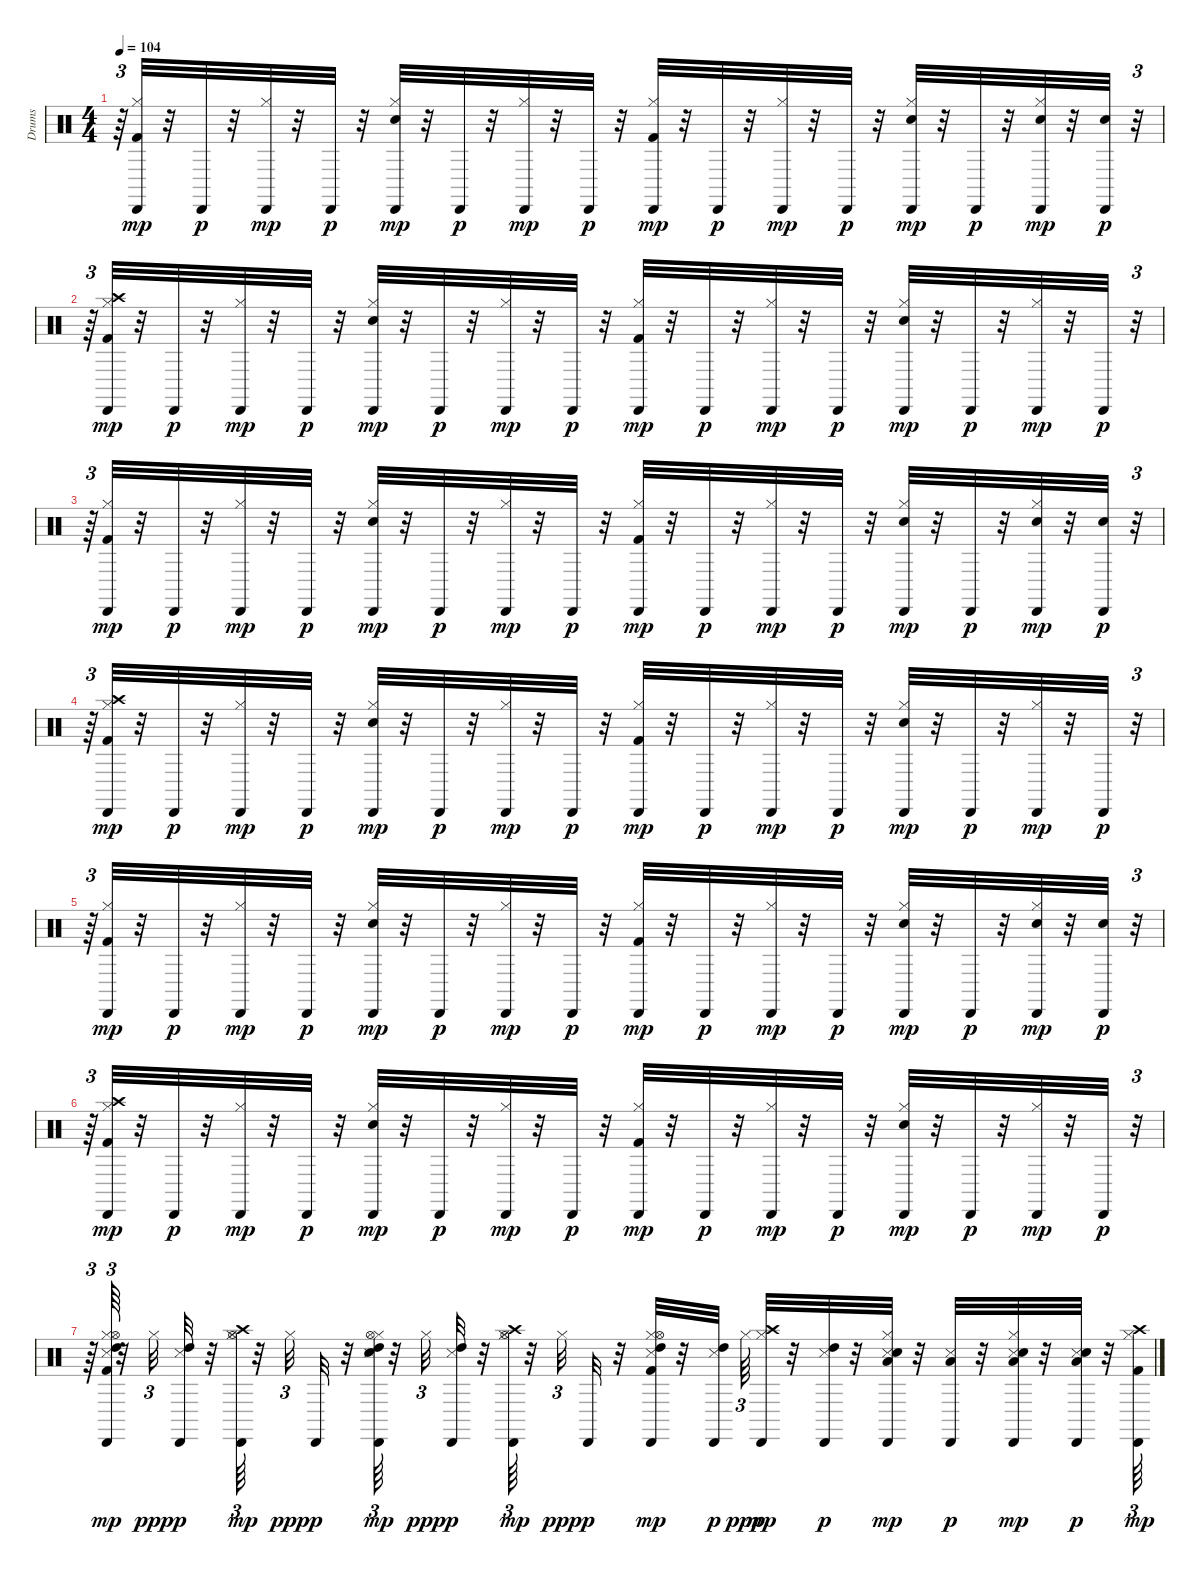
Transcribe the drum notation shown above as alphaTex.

\track ("Drums               " "Drums     ") {instrument percussion}
\staff {score}
\articulation defaults
\ts (4 4)
\tempo 104
\clef neutral
\ks c
r.64{tu (3 2) dy p} ("Kick (hit) 2" "Hi-Hat (closed)" "Cabasa (hit)").32{dy mp} r.32 "Cabasa (hit)".32{dy p} r.32 ("Hi-Hat (closed)" "Cabasa (hit)").32{dy mp} r.32 "Cabasa (hit)".32{dy p} r.32 ("Snare (hit) 2" "Hi-Hat (closed)" "Cabasa (hit)").32{dy mp} r.32 "Cabasa (hit)".32{dy p} r.32 ("Hi-Hat (closed)" "Cabasa (hit)").32{dy mp} r.32 "Cabasa (hit)".32{dy p} r.32 ("Kick (hit) 2" "Hi-Hat (closed)" "Cabasa (hit)").32{dy mp} r.32 "Cabasa (hit)".32{dy p} r.32 ("Hi-Hat (closed)" "Cabasa (hit)").32{dy mp} r.32 "Cabasa (hit)".32{dy p} r.32 ("Snare (hit) 2" "Hi-Hat (closed)" "Cabasa (hit)").32{dy mp} r.32 "Cabasa (hit)".32{dy p} r.32 ("Snare (hit) 2" "Hi-Hat (closed)" "Cabasa (hit)").32{dy mp} r.32 ("Snare (hit) 2" "Cabasa (hit)").32{dy p} r.32{tu (3 2)} |
r.64{tu (3 2)} ("Kick (hit) 2" "Hi-Hat (closed)" "Crash high (hit)" "Cabasa (hit)").32{dy mp} r.32 "Cabasa (hit)".32{dy p} r.32 ("Hi-Hat (closed)" "Cabasa (hit)").32{dy mp} r.32 "Cabasa (hit)".32{dy p} r.32 ("Snare (hit) 2" "Hi-Hat (closed)" "Cabasa (hit)").32{dy mp} r.32 "Cabasa (hit)".32{dy p} r.32 ("Hi-Hat (closed)" "Cabasa (hit)").32{dy mp} r.32 "Cabasa (hit)".32{dy p} r.32 ("Kick (hit) 2" "Hi-Hat (closed)" "Cabasa (hit)").32{dy mp} r.32 "Cabasa (hit)".32{dy p} r.32 ("Hi-Hat (closed)" "Cabasa (hit)").32{dy mp} r.32 "Cabasa (hit)".32{dy p} r.32 ("Snare (hit) 2" "Hi-Hat (closed)" "Cabasa (hit)").32{dy mp} r.32 "Cabasa (hit)".32{dy p} r.32 ("Hi-Hat (closed)" "Cabasa (hit)").32{dy mp} r.32 "Cabasa (hit)".32{dy p} r.32{tu (3 2)} |
r.64{tu (3 2)} ("Kick (hit) 2" "Hi-Hat (closed)" "Cabasa (hit)").32{dy mp} r.32 "Cabasa (hit)".32{dy p} r.32 ("Hi-Hat (closed)" "Cabasa (hit)").32{dy mp} r.32 "Cabasa (hit)".32{dy p} r.32 ("Snare (hit) 2" "Hi-Hat (closed)" "Cabasa (hit)").32{dy mp} r.32 "Cabasa (hit)".32{dy p} r.32 ("Hi-Hat (closed)" "Cabasa (hit)").32{dy mp} r.32 "Cabasa (hit)".32{dy p} r.32 ("Kick (hit) 2" "Hi-Hat (closed)" "Cabasa (hit)").32{dy mp} r.32 "Cabasa (hit)".32{dy p} r.32 ("Hi-Hat (closed)" "Cabasa (hit)").32{dy mp} r.32 "Cabasa (hit)".32{dy p} r.32 ("Snare (hit) 2" "Hi-Hat (closed)" "Cabasa (hit)").32{dy mp} r.32 "Cabasa (hit)".32{dy p} r.32 ("Snare (hit) 2" "Hi-Hat (closed)" "Cabasa (hit)").32{dy mp} r.32 ("Snare (hit) 2" "Cabasa (hit)").32{dy p} r.32{tu (3 2)} |
r.64{tu (3 2)} ("Kick (hit) 2" "Hi-Hat (closed)" "Crash high (hit)" "Cabasa (hit)").32{dy mp} r.32 "Cabasa (hit)".32{dy p} r.32 ("Hi-Hat (closed)" "Cabasa (hit)").32{dy mp} r.32 "Cabasa (hit)".32{dy p} r.32 ("Snare (hit) 2" "Hi-Hat (closed)" "Cabasa (hit)").32{dy mp} r.32 "Cabasa (hit)".32{dy p} r.32 ("Hi-Hat (closed)" "Cabasa (hit)").32{dy mp} r.32 "Cabasa (hit)".32{dy p} r.32 ("Kick (hit) 2" "Hi-Hat (closed)" "Cabasa (hit)").32{dy mp} r.32 "Cabasa (hit)".32{dy p} r.32 ("Hi-Hat (closed)" "Cabasa (hit)").32{dy mp} r.32 "Cabasa (hit)".32{dy p} r.32 ("Snare (hit) 2" "Hi-Hat (closed)" "Cabasa (hit)").32{dy mp} r.32 "Cabasa (hit)".32{dy p} r.32 ("Hi-Hat (closed)" "Cabasa (hit)").32{dy mp} r.32 "Cabasa (hit)".32{dy p} r.32{tu (3 2)} |
r.64{tu (3 2)} ("Kick (hit) 2" "Hi-Hat (closed)" "Cabasa (hit)").32{dy mp} r.32 "Cabasa (hit)".32{dy p} r.32 ("Hi-Hat (closed)" "Cabasa (hit)").32{dy mp} r.32 "Cabasa (hit)".32{dy p} r.32 ("Snare (hit) 2" "Hi-Hat (closed)" "Cabasa (hit)").32{dy mp} r.32 "Cabasa (hit)".32{dy p} r.32 ("Hi-Hat (closed)" "Cabasa (hit)").32{dy mp} r.32 "Cabasa (hit)".32{dy p} r.32 ("Kick (hit) 2" "Hi-Hat (closed)" "Cabasa (hit)").32{dy mp} r.32 "Cabasa (hit)".32{dy p} r.32 ("Hi-Hat (closed)" "Cabasa (hit)").32{dy mp} r.32 "Cabasa (hit)".32{dy p} r.32 ("Snare (hit) 2" "Hi-Hat (closed)" "Cabasa (hit)").32{dy mp} r.32 "Cabasa (hit)".32{dy p} r.32 ("Snare (hit) 2" "Hi-Hat (closed)" "Cabasa (hit)").32{dy mp} r.32 ("Snare (hit) 2" "Cabasa (hit)").32{dy p} r.32{tu (3 2)} |
r.64{tu (3 2)} ("Kick (hit) 2" "Hi-Hat (closed)" "Crash high (hit)" "Cabasa (hit)").32{dy mp} r.32 "Cabasa (hit)".32{dy p} r.32 ("Hi-Hat (closed)" "Cabasa (hit)").32{dy mp} r.32 "Cabasa (hit)".32{dy p} r.32 ("Snare (hit) 2" "Hi-Hat (closed)" "Cabasa (hit)").32{dy mp} r.32 "Cabasa (hit)".32{dy p} r.32 ("Hi-Hat (closed)" "Cabasa (hit)").32{dy mp} r.32 "Cabasa (hit)".32{dy p} r.32 ("Kick (hit) 2" "Hi-Hat (closed)" "Cabasa (hit)").32{dy mp} r.32 "Cabasa (hit)".32{dy p} r.32 ("Hi-Hat (closed)" "Cabasa (hit)").32{dy mp} r.32 "Cabasa (hit)".32{dy p} r.32 ("Snare (hit) 2" "Hi-Hat (closed)" "Cabasa (hit)").32{dy mp} r.32 "Cabasa (hit)".32{dy p} r.32 ("Hi-Hat (closed)" "Cabasa (hit)").32{dy mp} r.32 "Cabasa (hit)".32{dy p} r.32{tu (3 2)} |
r.64{tu (3 2)} ("Kick (hit) 2" "Snare (side stick) 3" "Hi-Hat (closed)" "Hi-Hat (open)" "High Tom (hit)" "Cabasa (hit)").64{tu (3 2) dy mp} r.32 "Hi-Hat (closed)".32{tu (3 2) dy ppp} ("Snare (side stick) 3" "High Tom (hit)" "Cabasa (hit)").32{dy p} r.32 ("Hi-Hat (closed)" "Hi-Hat (open)" "Crash high (hit)" "Cabasa (hit)").64{tu (3 2) dy mp} r.32 "Hi-Hat (closed)".32{tu (3 2) dy ppp} "Cabasa (hit)".32{dy p} r.32 ("Snare (side stick) 3" "Snare (hit) 2" "Hi-Hat (closed)" "Hi-Hat (open)" "High Tom (hit)" "Cabasa (hit)").64{tu (3 2) dy mp} r.32 "Hi-Hat (closed)".32{tu (3 2) dy ppp} ("Snare (side stick) 3" "High Tom (hit)" "Cabasa (hit)").32{dy p} r.32 ("Hi-Hat (closed)" "Hi-Hat (open)" "Crash high (hit)" "Cabasa (hit)").64{tu (3 2) dy mp} r.32 "Hi-Hat (closed)".32{tu (3 2) dy ppp} "Cabasa (hit)".32{dy p} r.32 ("Kick (hit) 2" "Snare (side stick) 3" "Hi-Hat (closed)" "Hi-Hat (open)" "High Tom (hit)" "Cabasa (hit)").32{dy mp} r.32 ("Snare (side stick) 3" "High Tom (hit)" "Cabasa (hit)").32{dy p} "Hi-Hat (closed)".64{tu (3 2) dy ppp} ("Hi-Hat (closed)" "Crash high (hit)" "Cabasa (hit)").32{dy mp} r.32 ("Snare (side stick) 3" "High Tom (hit)" "Cabasa (hit)").32{dy p} r.32 ("Snare (side stick) 3" "Snare (hit) 2" "Hi-Hat (closed)" "Low Tom (hit)" "Cabasa (hit)").32{dy mp} r.32 ("Snare (side stick) 3" "Low Tom (hit)" "Cabasa (hit)").32{dy p} r.32 ("Snare (side stick) 3" "Snare (hit) 2" "Low Floor Tom (hit)" "Hi-Hat (closed)" "Cabasa (hit)").32{dy mp} r.32 ("Snare (side stick) 3" "Snare (hit) 2" "Low Floor Tom (hit)" "Cabasa (hit)").32{dy p} r.32 ("Kick (hit) 2" "Hi-Hat (closed)" "Crash high (hit)" "Cabasa (hit)").64{tu (3 2) dy mp}
